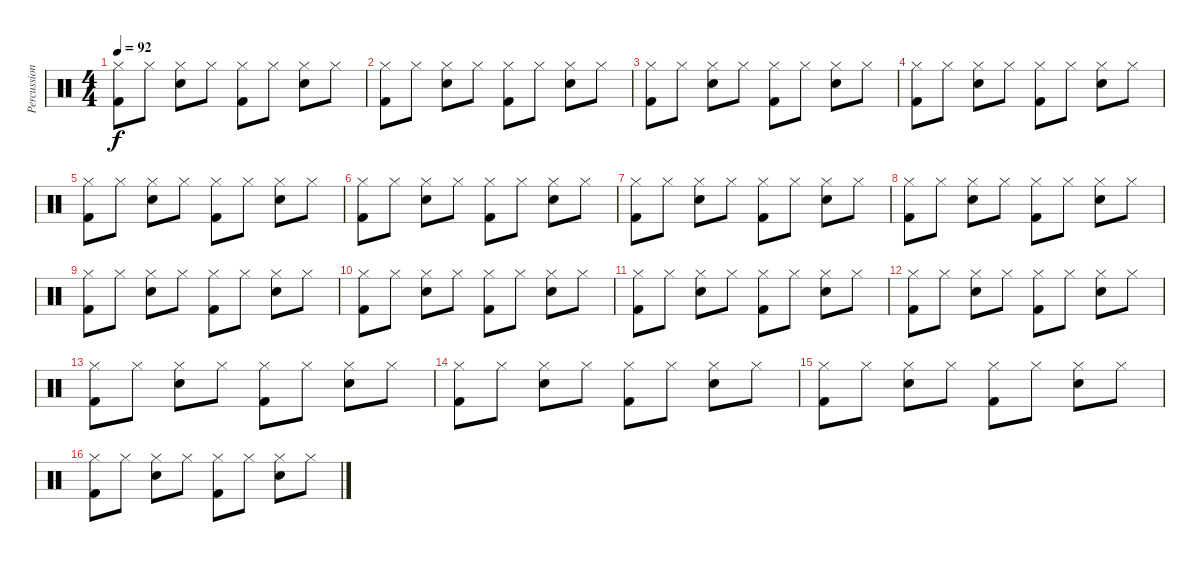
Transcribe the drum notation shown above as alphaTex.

\track ("Percussion" "Percussion") {instrument percussion}
\staff {score}
\articulation defaults
\ts (4 4)
\tempo 92
\clef neutral
\ks c
("Kick (hit) 2" "Hi-Hat (closed)").8{dy f} "Hi-Hat (closed)".8 ("Electric Snare (hit)" "Hi-Hat (closed)").8 "Hi-Hat (closed)".8 ("Kick (hit) 2" "Hi-Hat (closed)").8 "Hi-Hat (closed)".8 ("Electric Snare (hit)" "Hi-Hat (closed)").8 "Hi-Hat (closed)".8 |
("Kick (hit) 2" "Hi-Hat (closed)").8 "Hi-Hat (closed)".8 ("Electric Snare (hit)" "Hi-Hat (closed)").8 "Hi-Hat (closed)".8 ("Kick (hit) 2" "Hi-Hat (closed)").8 "Hi-Hat (closed)".8 ("Electric Snare (hit)" "Hi-Hat (closed)").8 "Hi-Hat (closed)".8 |
("Kick (hit) 2" "Hi-Hat (closed)").8 "Hi-Hat (closed)".8 ("Electric Snare (hit)" "Hi-Hat (closed)").8 "Hi-Hat (closed)".8 ("Kick (hit) 2" "Hi-Hat (closed)").8 "Hi-Hat (closed)".8 ("Electric Snare (hit)" "Hi-Hat (closed)").8 "Hi-Hat (closed)".8 |
("Kick (hit) 2" "Hi-Hat (closed)").8 "Hi-Hat (closed)".8 ("Electric Snare (hit)" "Hi-Hat (closed)").8 "Hi-Hat (closed)".8 ("Kick (hit) 2" "Hi-Hat (closed)").8 "Hi-Hat (closed)".8 ("Electric Snare (hit)" "Hi-Hat (closed)").8 "Hi-Hat (closed)".8 |
("Kick (hit) 2" "Hi-Hat (closed)").8 "Hi-Hat (closed)".8 ("Electric Snare (hit)" "Hi-Hat (closed)").8 "Hi-Hat (closed)".8 ("Kick (hit) 2" "Hi-Hat (closed)").8 "Hi-Hat (closed)".8 ("Electric Snare (hit)" "Hi-Hat (closed)").8 "Hi-Hat (closed)".8 |
("Kick (hit) 2" "Hi-Hat (closed)").8 "Hi-Hat (closed)".8 ("Electric Snare (hit)" "Hi-Hat (closed)").8 "Hi-Hat (closed)".8 ("Kick (hit) 2" "Hi-Hat (closed)").8 "Hi-Hat (closed)".8 ("Electric Snare (hit)" "Hi-Hat (closed)").8 "Hi-Hat (closed)".8 |
("Kick (hit) 2" "Hi-Hat (closed)").8 "Hi-Hat (closed)".8 ("Electric Snare (hit)" "Hi-Hat (closed)").8 "Hi-Hat (closed)".8 ("Kick (hit) 2" "Hi-Hat (closed)").8 "Hi-Hat (closed)".8 ("Electric Snare (hit)" "Hi-Hat (closed)").8 "Hi-Hat (closed)".8 |
("Kick (hit) 2" "Hi-Hat (closed)").8 "Hi-Hat (closed)".8 ("Electric Snare (hit)" "Hi-Hat (closed)").8 "Hi-Hat (closed)".8 ("Kick (hit) 2" "Hi-Hat (closed)").8 "Hi-Hat (closed)".8 ("Electric Snare (hit)" "Hi-Hat (closed)").8 "Hi-Hat (closed)".8 |
("Kick (hit) 2" "Hi-Hat (closed)").8 "Hi-Hat (closed)".8 ("Electric Snare (hit)" "Hi-Hat (closed)").8 "Hi-Hat (closed)".8 ("Kick (hit) 2" "Hi-Hat (closed)").8 "Hi-Hat (closed)".8 ("Electric Snare (hit)" "Hi-Hat (closed)").8 "Hi-Hat (closed)".8 |
("Kick (hit) 2" "Hi-Hat (closed)").8 "Hi-Hat (closed)".8 ("Electric Snare (hit)" "Hi-Hat (closed)").8 "Hi-Hat (closed)".8 ("Kick (hit) 2" "Hi-Hat (closed)").8 "Hi-Hat (closed)".8 ("Electric Snare (hit)" "Hi-Hat (closed)").8 "Hi-Hat (closed)".8 |
("Kick (hit) 2" "Hi-Hat (closed)").8 "Hi-Hat (closed)".8 ("Electric Snare (hit)" "Hi-Hat (closed)").8 "Hi-Hat (closed)".8 ("Kick (hit) 2" "Hi-Hat (closed)").8 "Hi-Hat (closed)".8 ("Electric Snare (hit)" "Hi-Hat (closed)").8 "Hi-Hat (closed)".8 |
("Kick (hit) 2" "Hi-Hat (closed)").8 "Hi-Hat (closed)".8 ("Electric Snare (hit)" "Hi-Hat (closed)").8 "Hi-Hat (closed)".8 ("Kick (hit) 2" "Hi-Hat (closed)").8 "Hi-Hat (closed)".8 ("Electric Snare (hit)" "Hi-Hat (closed)").8 "Hi-Hat (closed)".8 |
("Kick (hit) 2" "Hi-Hat (closed)").8 "Hi-Hat (closed)".8 ("Electric Snare (hit)" "Hi-Hat (closed)").8 "Hi-Hat (closed)".8 ("Kick (hit) 2" "Hi-Hat (closed)").8 "Hi-Hat (closed)".8 ("Electric Snare (hit)" "Hi-Hat (closed)").8 "Hi-Hat (closed)".8 |
("Kick (hit) 2" "Hi-Hat (closed)").8 "Hi-Hat (closed)".8 ("Electric Snare (hit)" "Hi-Hat (closed)").8 "Hi-Hat (closed)".8 ("Kick (hit) 2" "Hi-Hat (closed)").8 "Hi-Hat (closed)".8 ("Electric Snare (hit)" "Hi-Hat (closed)").8 "Hi-Hat (closed)".8 |
("Kick (hit) 2" "Hi-Hat (closed)").8 "Hi-Hat (closed)".8 ("Electric Snare (hit)" "Hi-Hat (closed)").8 "Hi-Hat (closed)".8 ("Kick (hit) 2" "Hi-Hat (closed)").8 "Hi-Hat (closed)".8 ("Electric Snare (hit)" "Hi-Hat (closed)").8 "Hi-Hat (closed)".8 |
("Kick (hit) 2" "Hi-Hat (closed)").8 "Hi-Hat (closed)".8 ("Electric Snare (hit)" "Hi-Hat (closed)").8 "Hi-Hat (closed)".8 ("Kick (hit) 2" "Hi-Hat (closed)").8 "Hi-Hat (closed)".8 ("Electric Snare (hit)" "Hi-Hat (closed)").8 "Hi-Hat (closed)".8
